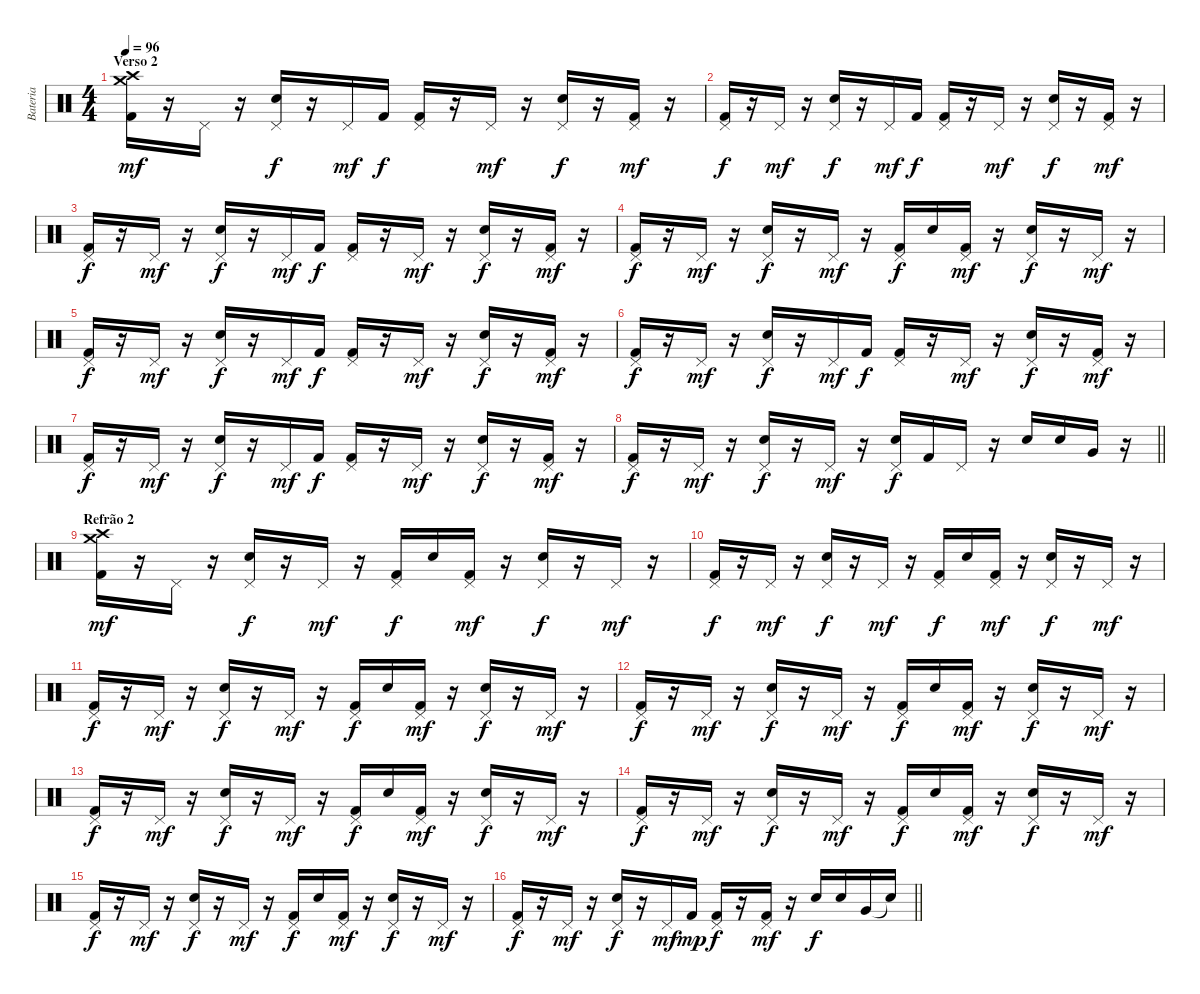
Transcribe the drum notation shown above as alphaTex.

\track ("Bateria" "Bateria") {instrument percussion}
\staff {score}
\articulation defaults
\ts (4 4)
\section ("" "Verso 2")
\tempo 96
\clef neutral
\ks c
("Crash medium (hit)" "Crash high (hit)" "Kick (hit) 2").16{dy mf} r.16 "Pedal Hi-Hat (hit)".16 r.16 ("Pedal Hi-Hat (hit)" "Electric Snare (hit)").16{dy f} r.16 "Pedal Hi-Hat (hit)".16{dy mf} "Kick (hit) 2".16{dy f} ("Pedal Hi-Hat (hit)" "Kick (hit) 2").16 r.16 "Pedal Hi-Hat (hit)".16{dy mf} r.16 ("Pedal Hi-Hat (hit)" "Electric Snare (hit)").16{dy f} r.16 ("Pedal Hi-Hat (hit)" "Kick (hit) 2").16{dy mf} r.16 |
("Pedal Hi-Hat (hit)" "Kick (hit) 2").16{dy f} r.16 "Pedal Hi-Hat (hit)".16{dy mf} r.16 ("Pedal Hi-Hat (hit)" "Electric Snare (hit)").16{dy f} r.16 "Pedal Hi-Hat (hit)".16{dy mf} "Kick (hit) 2".16{dy f} ("Pedal Hi-Hat (hit)" "Kick (hit) 2").16 r.16 "Pedal Hi-Hat (hit)".16{dy mf} r.16 ("Pedal Hi-Hat (hit)" "Electric Snare (hit)").16{dy f} r.16 ("Pedal Hi-Hat (hit)" "Kick (hit) 2").16{dy mf} r.16 |
("Pedal Hi-Hat (hit)" "Kick (hit) 2").16{dy f} r.16 "Pedal Hi-Hat (hit)".16{dy mf} r.16 ("Pedal Hi-Hat (hit)" "Electric Snare (hit)").16{dy f} r.16 "Pedal Hi-Hat (hit)".16{dy mf} "Kick (hit) 2".16{dy f} ("Pedal Hi-Hat (hit)" "Kick (hit) 2").16 r.16 "Pedal Hi-Hat (hit)".16{dy mf} r.16 ("Pedal Hi-Hat (hit)" "Electric Snare (hit)").16{dy f} r.16 ("Pedal Hi-Hat (hit)" "Kick (hit) 2").16{dy mf} r.16 |
("Pedal Hi-Hat (hit)" "Kick (hit) 2").16{dy f} r.16 "Pedal Hi-Hat (hit)".16{dy mf} r.16 ("Pedal Hi-Hat (hit)" "Electric Snare (hit)").16{dy f} r.16 "Pedal Hi-Hat (hit)".16{dy mf} r.16 ("Pedal Hi-Hat (hit)" "Kick (hit) 2").16{dy f} "Electric Snare (hit)".16 ("Pedal Hi-Hat (hit)" "Kick (hit) 2").16{dy mf} r.16 ("Pedal Hi-Hat (hit)" "Electric Snare (hit)").16{dy f} r.16 "Pedal Hi-Hat (hit)".16{dy mf} r.16 |
("Pedal Hi-Hat (hit)" "Kick (hit) 2").16{dy f} r.16 "Pedal Hi-Hat (hit)".16{dy mf} r.16 ("Pedal Hi-Hat (hit)" "Electric Snare (hit)").16{dy f} r.16 "Pedal Hi-Hat (hit)".16{dy mf} "Kick (hit) 2".16{dy f} ("Pedal Hi-Hat (hit)" "Kick (hit) 2").16 r.16 "Pedal Hi-Hat (hit)".16{dy mf} r.16 ("Pedal Hi-Hat (hit)" "Electric Snare (hit)").16{dy f} r.16 ("Pedal Hi-Hat (hit)" "Kick (hit) 2").16{dy mf} r.16 |
("Pedal Hi-Hat (hit)" "Kick (hit) 2").16{dy f} r.16 "Pedal Hi-Hat (hit)".16{dy mf} r.16 ("Pedal Hi-Hat (hit)" "Electric Snare (hit)").16{dy f} r.16 "Pedal Hi-Hat (hit)".16{dy mf} "Kick (hit) 2".16{dy f} ("Pedal Hi-Hat (hit)" "Kick (hit) 2").16 r.16 "Pedal Hi-Hat (hit)".16{dy mf} r.16 ("Pedal Hi-Hat (hit)" "Electric Snare (hit)").16{dy f} r.16 ("Pedal Hi-Hat (hit)" "Kick (hit) 2").16{dy mf} r.16 |
("Pedal Hi-Hat (hit)" "Kick (hit) 2").16{dy f} r.16 "Pedal Hi-Hat (hit)".16{dy mf} r.16 ("Pedal Hi-Hat (hit)" "Electric Snare (hit)").16{dy f} r.16 "Pedal Hi-Hat (hit)".16{dy mf} "Kick (hit) 2".16{dy f} ("Pedal Hi-Hat (hit)" "Kick (hit) 2").16 r.16 "Pedal Hi-Hat (hit)".16{dy mf} r.16 ("Pedal Hi-Hat (hit)" "Electric Snare (hit)").16{dy f} r.16 ("Pedal Hi-Hat (hit)" "Kick (hit) 2").16{dy mf} r.16 |
\barLineRight lightlight
("Pedal Hi-Hat (hit)" "Kick (hit) 2").16{dy f} r.16 "Pedal Hi-Hat (hit)".16{dy mf} r.16 ("Pedal Hi-Hat (hit)" "Electric Snare (hit)").16{dy f} r.16 "Pedal Hi-Hat (hit)".16{dy mf} r.16 ("Pedal Hi-Hat (hit)" "Electric Snare (hit)").16{dy f} "Kick (hit) 2".16 "Pedal Hi-Hat (hit)".16 r.16 "Electric Snare (hit)".16 "Electric Snare (hit)".16 "Very Low Tom (hit)".16 r.16 |
\section ("" "Refrão 2")
("Crash medium (hit)" "Crash high (hit)" "Kick (hit) 2").16{dy mf} r.16 "Pedal Hi-Hat (hit)".16 r.16 ("Pedal Hi-Hat (hit)" "Electric Snare (hit)").16{dy f} r.16 "Pedal Hi-Hat (hit)".16{dy mf} r.16 ("Pedal Hi-Hat (hit)" "Kick (hit) 2").16{dy f} "Electric Snare (hit)".16 ("Pedal Hi-Hat (hit)" "Kick (hit) 2").16{dy mf} r.16 ("Pedal Hi-Hat (hit)" "Electric Snare (hit)").16{dy f} r.16 "Pedal Hi-Hat (hit)".16{dy mf} r.16 |
("Pedal Hi-Hat (hit)" "Kick (hit) 2").16{dy f} r.16 "Pedal Hi-Hat (hit)".16{dy mf} r.16 ("Pedal Hi-Hat (hit)" "Electric Snare (hit)").16{dy f} r.16 "Pedal Hi-Hat (hit)".16{dy mf} r.16 ("Pedal Hi-Hat (hit)" "Kick (hit) 2").16{dy f} "Electric Snare (hit)".16 ("Pedal Hi-Hat (hit)" "Kick (hit) 2").16{dy mf} r.16 ("Pedal Hi-Hat (hit)" "Electric Snare (hit)").16{dy f} r.16 "Pedal Hi-Hat (hit)".16{dy mf} r.16 |
("Pedal Hi-Hat (hit)" "Kick (hit) 2").16{dy f} r.16 "Pedal Hi-Hat (hit)".16{dy mf} r.16 ("Pedal Hi-Hat (hit)" "Electric Snare (hit)").16{dy f} r.16 "Pedal Hi-Hat (hit)".16{dy mf} r.16 ("Pedal Hi-Hat (hit)" "Kick (hit) 2").16{dy f} "Electric Snare (hit)".16 ("Pedal Hi-Hat (hit)" "Kick (hit) 2").16{dy mf} r.16 ("Pedal Hi-Hat (hit)" "Electric Snare (hit)").16{dy f} r.16 "Pedal Hi-Hat (hit)".16{dy mf} r.16 |
("Pedal Hi-Hat (hit)" "Kick (hit) 2").16{dy f} r.16 "Pedal Hi-Hat (hit)".16{dy mf} r.16 ("Pedal Hi-Hat (hit)" "Electric Snare (hit)").16{dy f} r.16 "Pedal Hi-Hat (hit)".16{dy mf} r.16 ("Pedal Hi-Hat (hit)" "Kick (hit) 2").16{dy f} "Electric Snare (hit)".16 ("Pedal Hi-Hat (hit)" "Kick (hit) 2").16{dy mf} r.16 ("Pedal Hi-Hat (hit)" "Electric Snare (hit)").16{dy f} r.16 "Pedal Hi-Hat (hit)".16{dy mf} r.16 |
("Pedal Hi-Hat (hit)" "Kick (hit) 2").16{dy f} r.16 "Pedal Hi-Hat (hit)".16{dy mf} r.16 ("Pedal Hi-Hat (hit)" "Electric Snare (hit)").16{dy f} r.16 "Pedal Hi-Hat (hit)".16{dy mf} r.16 ("Pedal Hi-Hat (hit)" "Kick (hit) 2").16{dy f} "Electric Snare (hit)".16 ("Pedal Hi-Hat (hit)" "Kick (hit) 2").16{dy mf} r.16 ("Pedal Hi-Hat (hit)" "Electric Snare (hit)").16{dy f} r.16 "Pedal Hi-Hat (hit)".16{dy mf} r.16 |
("Pedal Hi-Hat (hit)" "Kick (hit) 2").16{dy f} r.16 "Pedal Hi-Hat (hit)".16{dy mf} r.16 ("Pedal Hi-Hat (hit)" "Electric Snare (hit)").16{dy f} r.16 "Pedal Hi-Hat (hit)".16{dy mf} r.16 ("Pedal Hi-Hat (hit)" "Kick (hit) 2").16{dy f} "Electric Snare (hit)".16 ("Pedal Hi-Hat (hit)" "Kick (hit) 2").16{dy mf} r.16 ("Pedal Hi-Hat (hit)" "Electric Snare (hit)").16{dy f} r.16 "Pedal Hi-Hat (hit)".16{dy mf} r.16 |
("Pedal Hi-Hat (hit)" "Kick (hit) 2").16{dy f} r.16 "Pedal Hi-Hat (hit)".16{dy mf} r.16 ("Pedal Hi-Hat (hit)" "Electric Snare (hit)").16{dy f} r.16 "Pedal Hi-Hat (hit)".16{dy mf} r.16 ("Pedal Hi-Hat (hit)" "Kick (hit) 2").16{dy f} "Electric Snare (hit)".16 ("Pedal Hi-Hat (hit)" "Kick (hit) 2").16{dy mf} r.16 ("Pedal Hi-Hat (hit)" "Electric Snare (hit)").16{dy f} r.16 "Pedal Hi-Hat (hit)".16{dy mf} r.16 |
\barLineRight lightlight
("Pedal Hi-Hat (hit)" "Kick (hit) 2").16{dy f} r.16 "Pedal Hi-Hat (hit)".16{dy mf} r.16 ("Pedal Hi-Hat (hit)" "Electric Snare (hit)").16{dy f} r.16 "Pedal Hi-Hat (hit)".16{dy mf} "Kick (hit) 2".16{dy mp} ("Pedal Hi-Hat (hit)" "Kick (hit) 2").16{dy f} r.16 ("Pedal Hi-Hat (hit)" "Kick (hit) 2").16{dy mf} r.16 "Electric Snare (hit)".16{dy f} "Electric Snare (hit)".16 "Very Low Tom (hit)".16 "Snare (hit)"{t}.16
